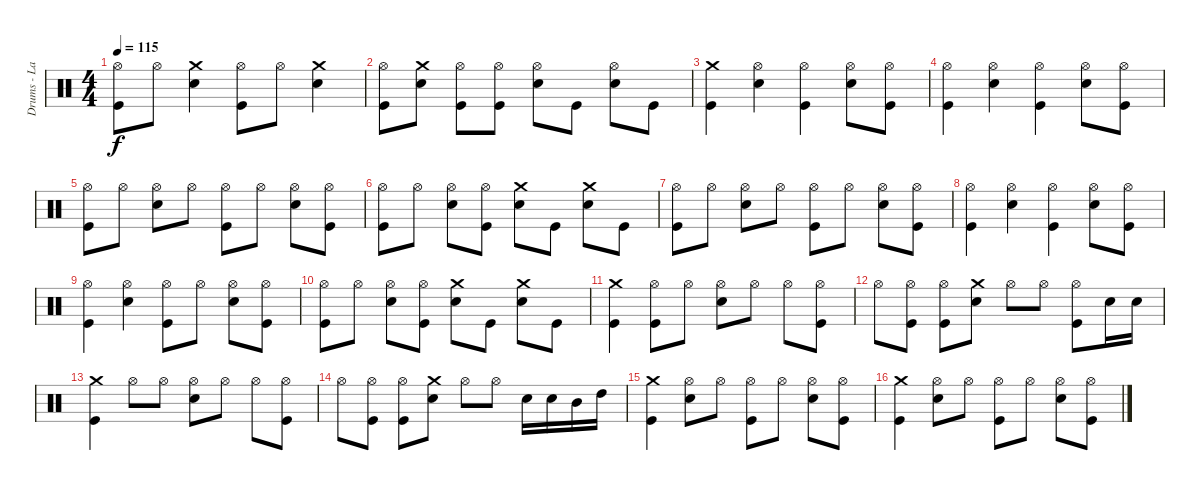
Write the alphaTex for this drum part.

\track ("Drums - Lars Ulrich" "Drums - La") {instrument percussion}
\staff {score}
\articulation defaults
\ts (4 4)
\tempo 115
\clef neutral
\ks c
("Kick (hit)" "Hi-Hat (open)").8{dy f} "Hi-Hat (open)".8 ("Electric Snare (hit)" "Crash medium (hit)").4 ("Kick (hit)" "Hi-Hat (open)").8 "Hi-Hat (open)".8 ("Electric Snare (hit)" "Crash medium (hit)").4 |
("Kick (hit)" "Hi-Hat (open)").8 ("Electric Snare (hit)" "Crash medium (hit)").8 ("Kick (hit)" "Hi-Hat (open)").8 ("Kick (hit)" "Hi-Hat (open)").8 ("Electric Snare (hit)" "Hi-Hat (open)").8 "Kick (hit)".8 ("Electric Snare (hit)" "Hi-Hat (open)").8 "Kick (hit)".8 |
("Kick (hit)" "Crash medium (hit)").4 ("Electric Snare (hit)" "Hi-Hat (open)").4 ("Kick (hit)" "Hi-Hat (open)").4 ("Electric Snare (hit)" "Hi-Hat (open)").8 ("Kick (hit)" "Hi-Hat (open)").8 |
("Kick (hit)" "Hi-Hat (open)").4 ("Electric Snare (hit)" "Hi-Hat (open)").4 ("Kick (hit)" "Hi-Hat (open)").4 ("Electric Snare (hit)" "Hi-Hat (open)").8 ("Kick (hit)" "Hi-Hat (open)").8 |
("Kick (hit)" "Hi-Hat (open)").8 "Hi-Hat (open)".8 ("Electric Snare (hit)" "Hi-Hat (open)").8 "Hi-Hat (open)".8 ("Kick (hit)" "Hi-Hat (open)").8 "Hi-Hat (open)".8 ("Electric Snare (hit)" "Hi-Hat (open)").8 ("Kick (hit)" "Hi-Hat (open)").8 |
("Kick (hit)" "Hi-Hat (open)").8 "Hi-Hat (open)".8 ("Electric Snare (hit)" "Hi-Hat (open)").8 ("Kick (hit)" "Hi-Hat (open)").8 ("Electric Snare (hit)" "Crash medium (hit)").8 "Kick (hit)".8 ("Electric Snare (hit)" "Crash medium (hit)").8 "Kick (hit)".8 |
("Kick (hit)" "Hi-Hat (open)").8 "Hi-Hat (open)".8 ("Electric Snare (hit)" "Hi-Hat (open)").8 "Hi-Hat (open)".8 ("Kick (hit)" "Hi-Hat (open)").8 "Hi-Hat (open)".8 ("Electric Snare (hit)" "Hi-Hat (open)").8 ("Kick (hit)" "Hi-Hat (open)").8 |
("Kick (hit)" "Hi-Hat (open)").4 ("Electric Snare (hit)" "Hi-Hat (open)").4 ("Kick (hit)" "Hi-Hat (open)").4 ("Electric Snare (hit)" "Hi-Hat (open)").8 ("Kick (hit)" "Hi-Hat (open)").8 |
("Kick (hit)" "Hi-Hat (open)").4 ("Electric Snare (hit)" "Hi-Hat (open)").4 ("Kick (hit)" "Hi-Hat (open)").8 "Hi-Hat (open)".8 ("Electric Snare (hit)" "Hi-Hat (open)").8 ("Kick (hit)" "Hi-Hat (open)").8 |
("Kick (hit)" "Hi-Hat (open)").8 "Hi-Hat (open)".8 ("Electric Snare (hit)" "Hi-Hat (open)").8 ("Kick (hit)" "Hi-Hat (open)").8 ("Electric Snare (hit)" "Crash medium (hit)").8 "Kick (hit)".8 ("Electric Snare (hit)" "Crash medium (hit)").8 "Kick (hit)".8 |
("Kick (hit)" "Crash medium (hit)").4 ("Kick (hit)" "Hi-Hat (open)").8 "Hi-Hat (open)".8 ("Electric Snare (hit)" "Hi-Hat (open)").8 "Hi-Hat (open)".8 "Hi-Hat (open)".8 ("Kick (hit)" "Hi-Hat (open)").8 |
"Hi-Hat (open)".8 ("Kick (hit)" "Hi-Hat (open)").8 ("Kick (hit)" "Hi-Hat (open)").8 ("Electric Snare (hit)" "Crash medium (hit)").8 "Hi-Hat (open)".8 "Hi-Hat (open)".8 ("Kick (hit)" "Hi-Hat (open)").8 "Electric Snare (hit)".16 "Electric Snare (hit)".16 |
("Kick (hit)" "Crash medium (hit)").4 "Hi-Hat (open)".8 "Hi-Hat (open)".8 ("Electric Snare (hit)" "Hi-Hat (open)").8 "Hi-Hat (open)".8 "Hi-Hat (open)".8 ("Kick (hit)" "Hi-Hat (open)").8 |
"Hi-Hat (open)".8 ("Kick (hit)" "Hi-Hat (open)").8 ("Kick (hit)" "Hi-Hat (open)").8 ("Electric Snare (hit)" "Crash medium (hit)").8 "Hi-Hat (open)".8 "Hi-Hat (open)".8 "Electric Snare (hit)".16 "Electric Snare (hit)".16 "Mid Tom (hit)".16 "High Tom (hit)".16 |
("Kick (hit)" "Crash medium (hit)").4 ("Electric Snare (hit)" "Hi-Hat (open)").8 "Hi-Hat (open)".8 ("Kick (hit)" "Hi-Hat (open)").8 "Hi-Hat (open)".8 ("Electric Snare (hit)" "Hi-Hat (open)").8 ("Kick (hit)" "Hi-Hat (open)").8 |
("Kick (hit)" "Crash medium (hit)").4 ("Electric Snare (hit)" "Hi-Hat (open)").8 "Hi-Hat (open)".8 ("Kick (hit)" "Hi-Hat (open)").8 "Hi-Hat (open)".8 ("Electric Snare (hit)" "Hi-Hat (open)").8 ("Kick (hit)" "Hi-Hat (open)").8
